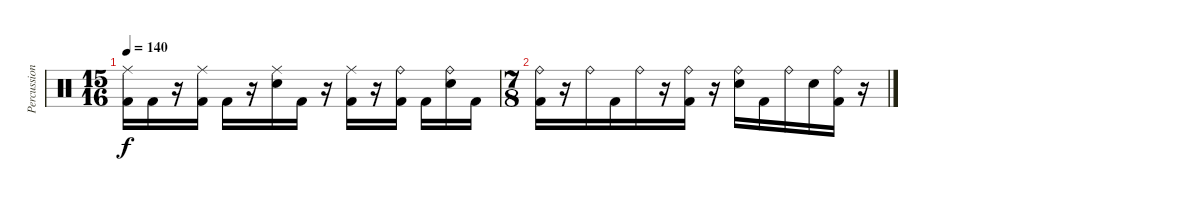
\track ("Percussion" "Percussion") {instrument percussion}
\staff {score}
\articulation defaults
\ts (15 16)
\tempo 140
\clef neutral
\ks c
("Ride (middle)" "Kick (hit) 2").16{dy f} "Kick (hit) 2".16 r.16 ("Ride (middle)" "Kick (hit) 2").16 "Kick (hit) 2".16 r.16 ("Ride (middle)" "Electric Snare (hit)").16 "Kick (hit) 2".16 r.16 ("Ride (middle)" "Kick (hit) 2").16 r.16 ("Ride (bell)" "Kick (hit) 2").16 "Kick (hit) 2".16 ("Ride (bell)" "Electric Snare (hit)").16 "Kick (hit) 2".16 |
\ts (7 8)
("Ride (bell)" "Kick (hit) 2").16 r.16 "Ride (bell)".16 "Kick (hit) 2".16 "Ride (bell)".16 r.16 ("Ride (bell)" "Kick (hit) 2").16 r.16 ("Ride (bell)" "Electric Snare (hit)").16 "Kick (hit) 2".16 "Ride (bell)".16 "Electric Snare (hit)".16 ("Ride (bell)" "Kick (hit) 2").16 r.16
